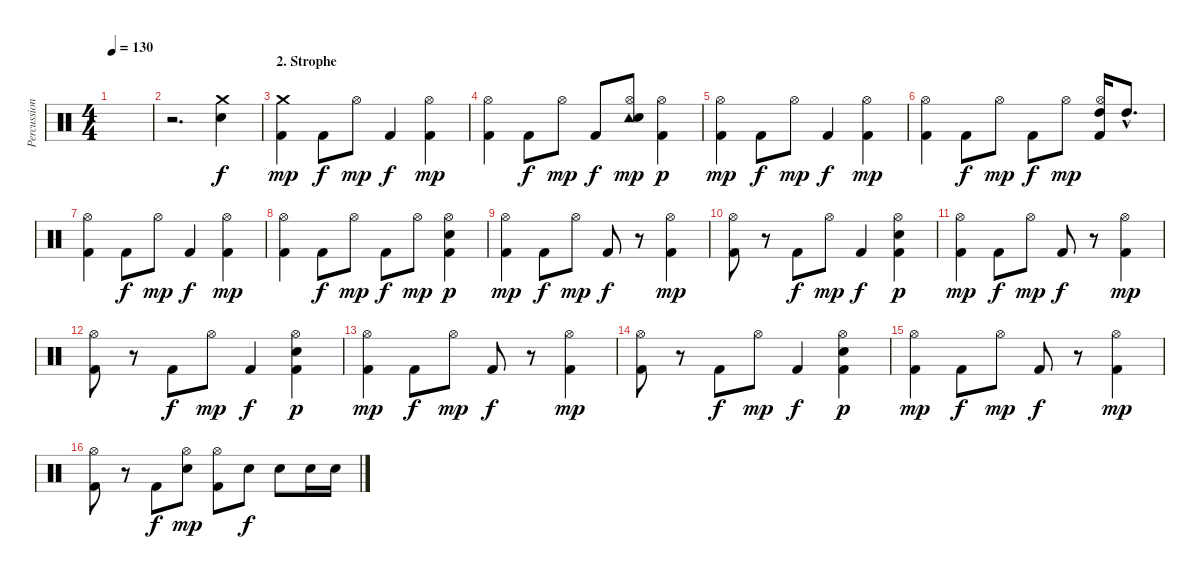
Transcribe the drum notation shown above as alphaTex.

\track ("Percussion (Bela)" "Percussion") {instrument percussion}
\staff {score}
\articulation defaults
\ts (4 4)
\tempo 130
\clef neutral
\ks c
|
r.2{d} ("Crash medium (hit)" "Electric Snare (hit)").4 |
\section ("" "2. Strophe")
("Crash medium (hit)" "Kick (hit) 2").4{dy mp} "Kick (hit) 2".8{dy f} "Hi-Hat (open)".8{dy mp} "Kick (hit) 2".4{dy f} ("Hi-Hat (open)" "Kick (hit) 2").4{dy mp} |
("Hi-Hat (open)" "Kick (hit) 2").4 "Kick (hit) 2".8{dy f} "Hi-Hat (open)".8{dy mp} "Kick (hit) 2".8{dy f} ("Tambourine (hit)" "Hi-Hat (open)" "Electric Snare (hit)").8{dy mp} ("Hi-Hat (open)" "Kick (hit) 2").4{dy p} |
("Hi-Hat (open)" "Kick (hit) 2").4{dy mp} "Kick (hit) 2".8{dy f} "Hi-Hat (open)".8{dy mp} "Kick (hit) 2".4{dy f} ("Hi-Hat (open)" "Kick (hit) 2").4{dy mp} |
("Hi-Hat (open)" "Kick (hit) 2").4 "Kick (hit) 2".8{dy f} "Hi-Hat (open)".8{dy mp} "Kick (hit) 2".8{dy f} "Hi-Hat (open)".8{dy mp} ("Hi-Hat (open)" "High Tom (hit)" "Kick (hit) 2").16 "High Tom (hit)"{hac}.8{d} |
("Hi-Hat (open)" "Kick (hit) 2").4 "Kick (hit) 2".8{dy f} "Hi-Hat (open)".8{dy mp} "Kick (hit) 2".4{dy f} ("Hi-Hat (open)" "Kick (hit) 2").4{dy mp} |
("Hi-Hat (open)" "Kick (hit) 2").4 "Kick (hit) 2".8{dy f} "Hi-Hat (open)".8{dy mp} "Kick (hit) 2".8{dy f} "Hi-Hat (open)".8{dy mp} ("Hi-Hat (open)" "Electric Snare (hit)" "Kick (hit) 2").4{dy p} |
("Hi-Hat (open)" "Kick (hit) 2").4{dy mp} "Kick (hit) 2".8{dy f} "Hi-Hat (open)".8{dy mp} "Kick (hit) 2".8{dy f} r.8 ("Hi-Hat (open)" "Kick (hit) 2").4{dy mp} |
("Hi-Hat (open)" "Kick (hit) 2").8 r.8 "Kick (hit) 2".8{dy f} "Hi-Hat (open)".8{dy mp} "Kick (hit) 2".4{dy f} ("Hi-Hat (open)" "Electric Snare (hit)" "Kick (hit) 2").4{dy p} |
("Hi-Hat (open)" "Kick (hit) 2").4{dy mp} "Kick (hit) 2".8{dy f} "Hi-Hat (open)".8{dy mp} "Kick (hit) 2".8{dy f} r.8 ("Hi-Hat (open)" "Kick (hit) 2").4{dy mp} |
("Hi-Hat (open)" "Kick (hit) 2").8 r.8 "Kick (hit) 2".8{dy f} "Hi-Hat (open)".8{dy mp} "Kick (hit) 2".4{dy f} ("Hi-Hat (open)" "Electric Snare (hit)" "Kick (hit) 2").4{dy p} |
("Hi-Hat (open)" "Kick (hit) 2").4{dy mp} "Kick (hit) 2".8{dy f} "Hi-Hat (open)".8{dy mp} "Kick (hit) 2".8{dy f} r.8 ("Hi-Hat (open)" "Kick (hit) 2").4{dy mp} |
("Hi-Hat (open)" "Kick (hit) 2").8 r.8 "Kick (hit) 2".8{dy f} "Hi-Hat (open)".8{dy mp} "Kick (hit) 2".4{dy f} ("Hi-Hat (open)" "Electric Snare (hit)" "Kick (hit) 2").4{dy p} |
("Hi-Hat (open)" "Kick (hit) 2").4{dy mp} "Kick (hit) 2".8{dy f} "Hi-Hat (open)".8{dy mp} "Kick (hit) 2".8{dy f} r.8 ("Hi-Hat (open)" "Kick (hit) 2").4{dy mp} |
("Hi-Hat (open)" "Kick (hit) 2").8 r.8 "Kick (hit) 2".8{dy f} ("Hi-Hat (open)" "Electric Snare (hit)").8{dy mp} ("Hi-Hat (open)" "Kick (hit) 2").8 "Electric Snare (hit)".8{dy f} "Electric Snare (hit)".8 "Electric Snare (hit)".16 "Electric Snare (hit)".16
